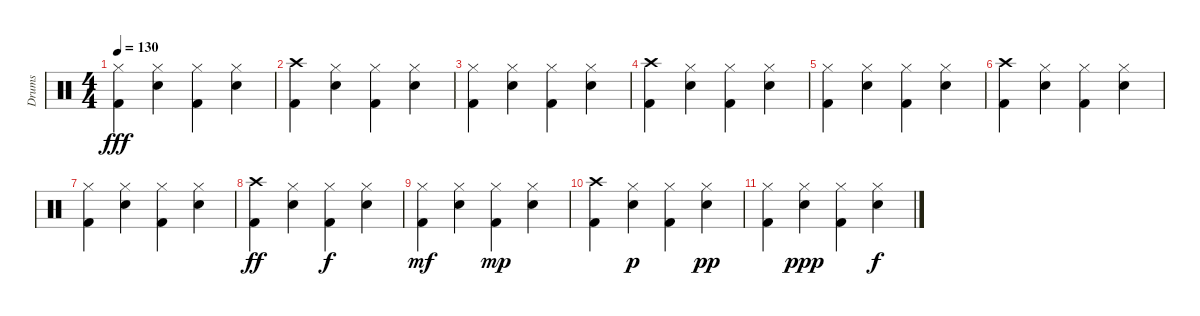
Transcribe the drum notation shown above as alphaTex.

\track ("Drums" "Drums") {instrument percussion}
\staff {score}
\articulation defaults
\ts (4 4)
\tempo 130
\clef neutral
\ks c
("Kick (hit) 2" "Hi-Hat (closed)").4{dy fff} ("Hi-Hat (closed)" "Snare (hit) 2").4 ("Kick (hit) 2" "Hi-Hat (closed)").4 ("Hi-Hat (closed)" "Snare (hit) 2").4 |
("Kick (hit) 2" "Crash high (hit)").4 ("Hi-Hat (closed)" "Snare (hit) 2").4 ("Kick (hit) 2" "Hi-Hat (closed)").4 ("Hi-Hat (closed)" "Snare (hit) 2").4 |
("Kick (hit) 2" "Hi-Hat (closed)").4 ("Hi-Hat (closed)" "Snare (hit) 2").4 ("Kick (hit) 2" "Hi-Hat (closed)").4 ("Hi-Hat (closed)" "Snare (hit) 2").4 |
("Kick (hit) 2" "Crash high (hit)").4 ("Hi-Hat (closed)" "Snare (hit) 2").4 ("Kick (hit) 2" "Hi-Hat (closed)").4 ("Hi-Hat (closed)" "Snare (hit) 2").4 |
("Kick (hit) 2" "Hi-Hat (closed)").4 ("Hi-Hat (closed)" "Snare (hit) 2").4 ("Kick (hit) 2" "Hi-Hat (closed)").4 ("Hi-Hat (closed)" "Snare (hit) 2").4 |
("Kick (hit) 2" "Crash high (hit)").4 ("Hi-Hat (closed)" "Snare (hit) 2").4 ("Kick (hit) 2" "Hi-Hat (closed)").4 ("Hi-Hat (closed)" "Snare (hit) 2").4 |
("Kick (hit) 2" "Hi-Hat (closed)").4 ("Hi-Hat (closed)" "Snare (hit) 2").4 ("Kick (hit) 2" "Hi-Hat (closed)").4 ("Hi-Hat (closed)" "Snare (hit) 2").4 |
("Kick (hit) 2" "Crash high (hit)").4{dy ff} ("Hi-Hat (closed)" "Snare (hit) 2").4 ("Kick (hit) 2" "Hi-Hat (closed)").4{dy f} ("Hi-Hat (closed)" "Snare (hit) 2").4 |
("Kick (hit) 2" "Hi-Hat (closed)").4{dy mf} ("Hi-Hat (closed)" "Snare (hit) 2").4 ("Kick (hit) 2" "Hi-Hat (closed)").4{dy mp} ("Hi-Hat (closed)" "Snare (hit) 2").4 |
("Kick (hit) 2" "Crash high (hit)").4 ("Hi-Hat (closed)" "Snare (hit) 2").4{dy p} ("Kick (hit) 2" "Hi-Hat (closed)").4 ("Hi-Hat (closed)" "Snare (hit) 2").4{dy pp} |
("Kick (hit) 2" "Hi-Hat (closed)").4 ("Hi-Hat (closed)" "Snare (hit) 2").4{dy ppp} ("Kick (hit) 2" "Hi-Hat (closed)").4 ("Hi-Hat (closed)" "Snare (hit) 2").4{dy f}
